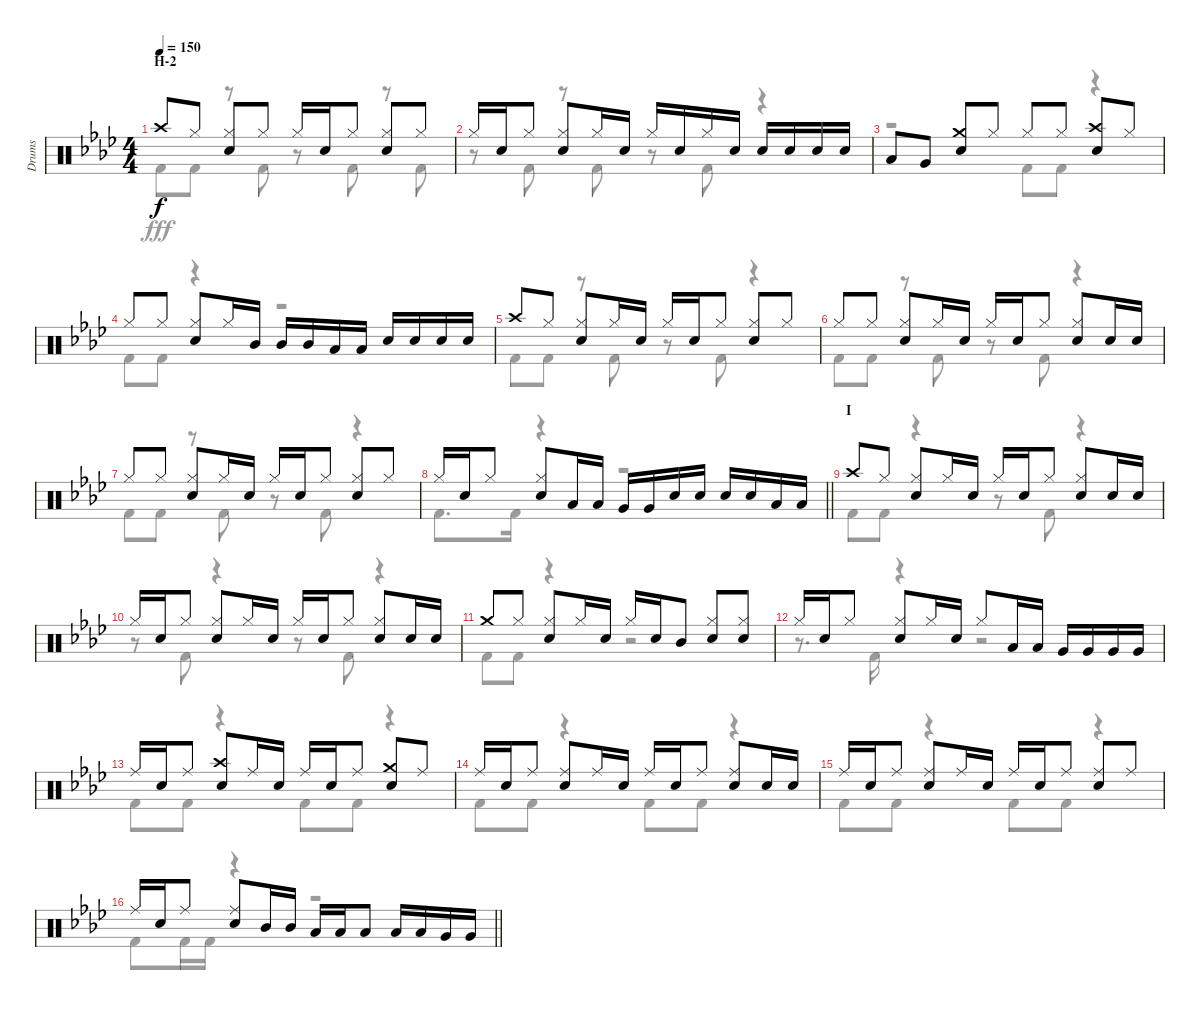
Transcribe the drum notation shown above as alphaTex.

\track ("Drums" "Drums") {instrument percussion}
\staff {score}
\articulation defaults
\voice
\ts (4 4)
\section ("" "H-2")
\tempo 150
\clef neutral
\ks ab "Crash high (hit)".8{dy f} "Hi-Hat (closed)".8
("Hi-Hat (closed)" "Snare (hit) 2").8 "Hi-Hat (closed)".8 "Hi-Hat (closed)".16 "Snare (hit) 2".16 "Hi-Hat (closed)".8 ("Hi-Hat (closed)" "Snare (hit) 2").8 "Hi-Hat (closed)".8 |
"Hi-Hat (closed)".16 "Snare (hit) 2".16 "Hi-Hat (closed)".8 ("Hi-Hat (closed)" "Snare (hit) 2").8 "Hi-Hat (closed)".16 "Snare (hit) 2".16 "Hi-Hat (closed)".16 "Snare (hit) 2".16 "Hi-Hat (closed)".16 "Snare (hit) 2".16 "Snare (hit) 2".16 "Snare (hit) 2".16 "Snare (hit) 2".16 "Snare (hit) 2".16 |
"Low Tom (hit)".8 "Very Low Tom (hit)".8 ("Crash medium (hit)" "Snare (hit) 2").8 "Hi-Hat (closed)".8 "Hi-Hat (closed)".8 "Hi-Hat (closed)".8 ("Crash high (hit)" "Snare (hit) 2").8 "Hi-Hat (closed)".8 |
"Hi-Hat (closed)".8 "Hi-Hat (closed)".8 ("Hi-Hat (closed)" "Snare (hit) 2").8 "Hi-Hat (closed)".16 "Mid Tom (hit)".16 "Mid Tom (hit)".16 "Mid Tom (hit)".16 "Low Tom (hit)".16 "Low Tom (hit)".16 "Snare (hit) 2".16 "Snare (hit) 2".16 "Snare (hit) 2".16 "Snare (hit) 2".16 |
"Crash high (hit)".8 "Hi-Hat (closed)".8 ("Hi-Hat (closed)" "Snare (hit) 2").8 "Hi-Hat (closed)".16 "Snare (hit) 2".16 "Hi-Hat (closed)".16 "Snare (hit) 2".16 "Hi-Hat (closed)".8 ("Hi-Hat (closed)" "Snare (hit) 2").8 "Hi-Hat (closed)".8 |
"Hi-Hat (closed)".8 "Hi-Hat (closed)".8 ("Hi-Hat (closed)" "Snare (hit) 2").8 "Hi-Hat (closed)".16 "Snare (hit) 2".16 "Hi-Hat (closed)".16 "Snare (hit) 2".16 "Hi-Hat (closed)".8 ("Hi-Hat (closed)" "Snare (hit) 2").8 "Snare (hit) 2".16 "Snare (hit) 2".16 |
"Hi-Hat (closed)".8 "Hi-Hat (closed)".8 ("Hi-Hat (closed)" "Snare (hit) 2").8 "Hi-Hat (closed)".16 "Snare (hit) 2".16 "Hi-Hat (closed)".16 "Snare (hit) 2".16 "Hi-Hat (closed)".8 ("Hi-Hat (closed)" "Snare (hit) 2").8 "Hi-Hat (closed)".8 |
\barLineRight lightlight "Hi-Hat (closed)".16 "Snare (hit) 2".16 "Hi-Hat (closed)".8
("Hi-Hat (closed)" "Snare (hit) 2").8 "Low Tom (hit)".16 "Low Tom (hit)".16 "Very Low Tom (hit)".16 "Very Low Tom (hit)".16 "Snare (hit) 2".16 "Snare (hit) 2".16 "Snare (hit) 2".16 "Snare (hit) 2".16 "Low Tom (hit)".16 "Low Tom (hit)".16 |
\section ("" "I")
"Crash high (hit)".8 "Hi-Hat (closed)".8 ("Hi-Hat (closed)" "Snare (hit) 2").8 "Hi-Hat (closed)".16 "Snare (hit) 2".16 "Hi-Hat (closed)".16 "Snare (hit) 2".16 "Hi-Hat (closed)".8 ("Hi-Hat (closed)" "Snare (hit) 2").8 "Snare (hit) 2".16 "Snare (hit) 2".16 |
"Hi-Hat (closed)".16 "Snare (hit) 2".16 "Hi-Hat (closed)".8 ("Hi-Hat (closed)" "Snare (hit) 2").8 "Hi-Hat (closed)".16 "Snare (hit) 2".16 "Hi-Hat (closed)".16 "Snare (hit) 2".16 "Hi-Hat (closed)".8 ("Hi-Hat (closed)" "Snare (hit) 2").8 "Snare (hit) 2".16 "Snare (hit) 2".16 |
"Crash medium (hit)".8 "Hi-Hat (closed)".8 ("Hi-Hat (closed)" "Snare (hit) 2").8 "Hi-Hat (closed)".16 "Snare (hit) 2".16 "Hi-Hat (closed)".16 "Snare (hit) 2".16 "Mid Tom (hit)".8 ("Hi-Hat (closed)" "Snare (hit) 2").8 ("Hi-Hat (closed)" "Snare (hit) 2").8 |
"Hi-Hat (closed)".16 "Snare (hit) 2".16 "Hi-Hat (closed)".8 ("Hi-Hat (closed)" "Snare (hit) 2").8 "Hi-Hat (closed)".16 "Snare (hit) 2".16 "Hi-Hat (closed)".8 "Low Tom (hit)".16 "Low Tom (hit)".16 "Very Low Tom (hit)".16 "Very Low Tom (hit)".16 "Very Low Tom (hit)".16 "Very Low Tom (hit)".16 |
"Ride (middle)".16 "Snare (hit) 2".16 "Ride (middle)".8 ("Crash high (hit)" "Snare (hit) 2").8 "Ride (middle)".16 "Snare (hit) 2".16 "Ride (middle)".16 "Snare (hit) 2".16 "Ride (middle)".8 ("Crash medium (hit)" "Snare (hit) 2").8 "Ride (middle)".8 |
"Ride (middle)".16 "Snare (hit) 2".16 "Ride (middle)".8 ("Ride (middle)" "Snare (hit) 2").8 "Ride (middle)".16 "Snare (hit) 2".16 "Ride (middle)".16 "Snare (hit) 2".16 "Ride (middle)".8 ("Ride (middle)" "Snare (hit) 2").8 "Snare (hit) 2".16 "Snare (hit) 2".16 |
"Ride (middle)".16 "Snare (hit) 2".16 "Ride (middle)".8 ("Ride (middle)" "Snare (hit) 2").8 "Ride (middle)".16 "Snare (hit) 2".16 "Ride (middle)".16 "Snare (hit) 2".16 "Ride (middle)".8 ("Ride (middle)" "Snare (hit) 2").8 "Ride (middle)".8 |
\barLineRight lightlight "Ride (middle)".16 "Snare (hit) 2".16 "Ride (middle)".8
("Ride (middle)" "Snare (hit) 2").8 "Mid Tom (hit)".16 "Mid Tom (hit)".16 "Low Tom (hit)".16 "Low Tom (hit)".16 "Low Tom (hit)".8 "Low Tom (hit)".16 "Low Tom (hit)".16 "Very Low Tom (hit)".16 "Very Low Tom (hit)".16
\voice
\clef neutral
\ottava regular
\simile none
\ks ab "Kick (hit) 2".8{dy fff} "Kick (hit) 2".8
r.8 "Kick (hit) 2".8 r.8 "Kick (hit) 2".8 r.8 "Kick (hit) 2".8 |
r.8 "Kick (hit) 2".8 r.8 "Kick (hit) 2".8 r.8 "Kick (hit) 2".8 r.4 |
r.2 "Kick (hit) 2".8 "Kick (hit) 2".8 r.4 |
"Kick (hit) 2".8 "Kick (hit) 2".8 r.4 r.2 |
"Kick (hit) 2".8 "Kick (hit) 2".8 r.8 "Kick (hit) 2".8 r.8 "Kick (hit) 2".8 r.4 |
"Kick (hit) 2".8 "Kick (hit) 2".8 r.8 "Kick (hit) 2".8 r.8 "Kick (hit) 2".8 r.4 |
"Kick (hit) 2".8 "Kick (hit) 2".8 r.8 "Kick (hit) 2".8 r.8 "Kick (hit) 2".8 r.4 |
\barLineRight lightlight "Kick (hit) 2".8{d} "Kick (hit) 2".16
r.4 r.2 |
"Kick (hit) 2".8 "Kick (hit) 2".8 r.4 r.8 "Kick (hit) 2".8 r.4 |
r.8 "Kick (hit) 2".8 r.4 r.8 "Kick (hit) 2".8 r.4 |
"Kick (hit) 2".8 "Kick (hit) 2".8 r.4 r.2 |
r.8{d} "Kick (hit) 2".16 r.4 r.2 |
"Kick (hit) 2".8 "Kick (hit) 2".8 r.4 "Kick (hit) 2".8 "Kick (hit) 2".8 r.4 |
"Kick (hit) 2".8 "Kick (hit) 2".8 r.4 "Kick (hit) 2".8 "Kick (hit) 2".8 r.4 |
"Kick (hit) 2".8 "Kick (hit) 2".8 r.4 "Kick (hit) 2".8 "Kick (hit) 2".8 r.4 |
\barLineRight lightlight "Kick (hit) 2".8 "Kick (hit) 2".16 "Kick (hit) 2".16
r.4 r.2
